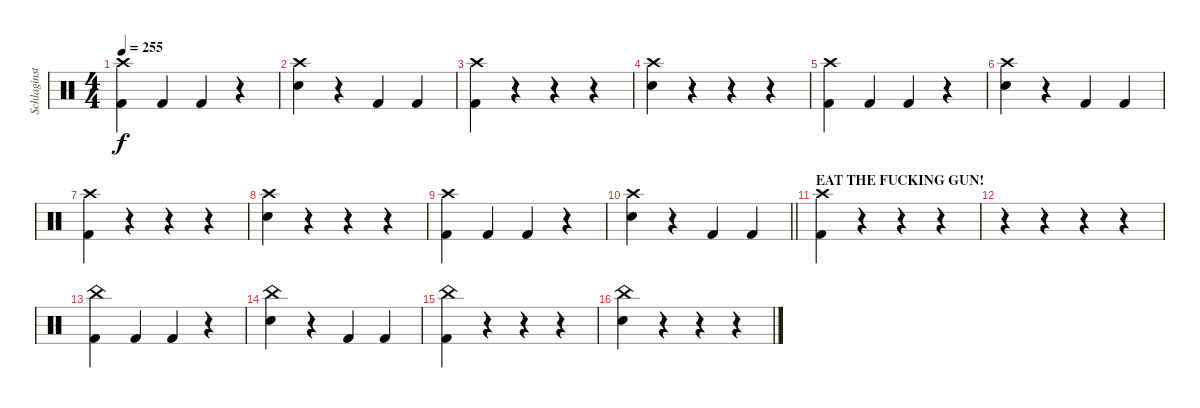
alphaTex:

\track ("Schlaginstrumente - Auswahl" "Schlaginst") {instrument percussion}
\staff {score}
\articulation defaults
\ts (4 4)
\tempo 255
\clef neutral
\ks c
("Crash high (hit)" "Kick (hit) 2").4{dy f} "Kick (hit) 2".4 "Kick (hit) 2".4 r.4 |
("Crash high (hit)" "Electric Snare (hit)").4 r.4 "Kick (hit) 2".4 "Kick (hit) 2".4 |
("Crash high (hit)" "Kick (hit) 2").4 r.4 r.4 r.4 |
("Crash high (hit)" "Electric Snare (hit)").4 r.4 r.4 r.4 |
("Crash high (hit)" "Kick (hit) 2").4 "Kick (hit) 2".4 "Kick (hit) 2".4 r.4 |
("Crash high (hit)" "Electric Snare (hit)").4 r.4 "Kick (hit) 2".4 "Kick (hit) 2".4 |
("Crash high (hit)" "Kick (hit) 2").4 r.4 r.4 r.4 |
("Crash high (hit)" "Electric Snare (hit)").4 r.4 r.4 r.4 |
("Crash high (hit)" "Kick (hit) 2").4 "Kick (hit) 2".4 "Kick (hit) 2".4 r.4 |
\barLineRight lightlight
("Crash high (hit)" "Electric Snare (hit)").4 r.4 "Kick (hit) 2".4 "Kick (hit) 2".4 |
\section ("" "EAT THE FUCKING GUN!")
("Crash high (hit)" "Kick (hit) 2").4 r.4 r.4 r.4 |
r.4 r.4 r.4 r.4 |
("China (hit)" "Kick (hit) 2").4 "Kick (hit) 2".4 "Kick (hit) 2".4 r.4 |
("China (hit)" "Electric Snare (hit)").4 r.4 "Kick (hit) 2".4 "Kick (hit) 2".4 |
("China (hit)" "Kick (hit) 2").4 r.4 r.4 r.4 |
("China (hit)" "Electric Snare (hit)").4 r.4 r.4 r.4
